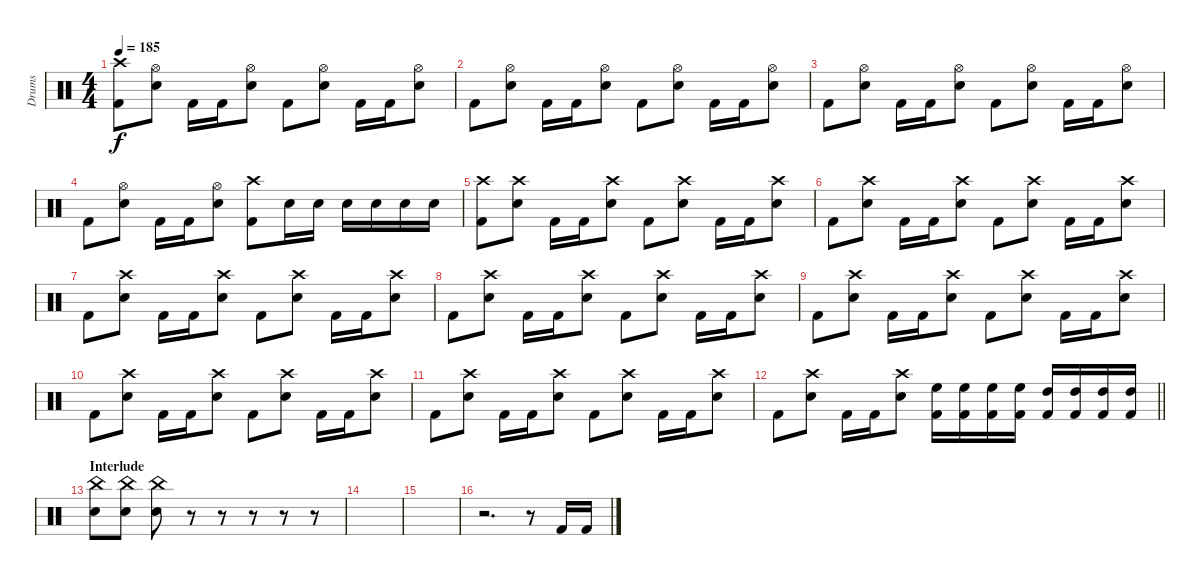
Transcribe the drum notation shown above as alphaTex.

\track ("Drums" "Drums") {instrument percussion}
\staff {score}
\articulation defaults
\ts (4 4)
\tempo 185
\clef neutral
\ks c
("Crash high (hit)" "Kick (hit) 2").8{dy f} ("Hi-Hat (open)" "Electric Snare (hit)").8 "Kick (hit) 2".16 "Kick (hit) 2".16 ("Hi-Hat (open)" "Electric Snare (hit)").8 "Kick (hit) 2".8 ("Hi-Hat (open)" "Electric Snare (hit)").8 "Kick (hit) 2".16 "Kick (hit) 2".16 ("Hi-Hat (open)" "Electric Snare (hit)").8 |
"Kick (hit) 2".8 ("Hi-Hat (open)" "Electric Snare (hit)").8 "Kick (hit) 2".16 "Kick (hit) 2".16 ("Hi-Hat (open)" "Electric Snare (hit)").8 "Kick (hit) 2".8 ("Hi-Hat (open)" "Electric Snare (hit)").8 "Kick (hit) 2".16 "Kick (hit) 2".16 ("Hi-Hat (open)" "Electric Snare (hit)").8 |
"Kick (hit) 2".8 ("Hi-Hat (open)" "Electric Snare (hit)").8 "Kick (hit) 2".16 "Kick (hit) 2".16 ("Hi-Hat (open)" "Electric Snare (hit)").8 "Kick (hit) 2".8 ("Hi-Hat (open)" "Electric Snare (hit)").8 "Kick (hit) 2".16 "Kick (hit) 2".16 ("Hi-Hat (open)" "Electric Snare (hit)").8 |
"Kick (hit) 2".8 ("Hi-Hat (open)" "Electric Snare (hit)").8 "Kick (hit) 2".16 "Kick (hit) 2".16 ("Hi-Hat (open)" "Electric Snare (hit)").8 ("Crash high (hit)" "Kick (hit) 2").8 "Electric Snare (hit)".16 "Electric Snare (hit)".16 "Electric Snare (hit)".16 "Electric Snare (hit)".16 "Electric Snare (hit)".16 "Electric Snare (hit)".16 |
("Crash high (hit)" "Kick (hit) 2").8 ("Crash high (hit)" "Electric Snare (hit)").8 "Kick (hit) 2".16 "Kick (hit) 2".16 ("Crash high (hit)" "Electric Snare (hit)").8 "Kick (hit) 2".8 ("Crash high (hit)" "Electric Snare (hit)").8 "Kick (hit) 2".16 "Kick (hit) 2".16 ("Crash high (hit)" "Electric Snare (hit)").8 |
"Kick (hit) 2".8 ("Crash high (hit)" "Electric Snare (hit)").8 "Kick (hit) 2".16 "Kick (hit) 2".16 ("Crash high (hit)" "Electric Snare (hit)").8 "Kick (hit) 2".8 ("Crash high (hit)" "Electric Snare (hit)").8 "Kick (hit) 2".16 "Kick (hit) 2".16 ("Crash high (hit)" "Electric Snare (hit)").8 |
"Kick (hit) 2".8 ("Crash high (hit)" "Electric Snare (hit)").8 "Kick (hit) 2".16 "Kick (hit) 2".16 ("Crash high (hit)" "Electric Snare (hit)").8 "Kick (hit) 2".8 ("Crash high (hit)" "Electric Snare (hit)").8 "Kick (hit) 2".16 "Kick (hit) 2".16 ("Crash high (hit)" "Electric Snare (hit)").8 |
"Kick (hit) 2".8 ("Crash high (hit)" "Electric Snare (hit)").8 "Kick (hit) 2".16 "Kick (hit) 2".16 ("Crash high (hit)" "Electric Snare (hit)").8 "Kick (hit) 2".8 ("Crash high (hit)" "Electric Snare (hit)").8 "Kick (hit) 2".16 "Kick (hit) 2".16 ("Crash high (hit)" "Electric Snare (hit)").8 |
"Kick (hit) 2".8 ("Crash high (hit)" "Electric Snare (hit)").8 "Kick (hit) 2".16 "Kick (hit) 2".16 ("Crash high (hit)" "Electric Snare (hit)").8 "Kick (hit) 2".8 ("Crash high (hit)" "Electric Snare (hit)").8 "Kick (hit) 2".16 "Kick (hit) 2".16 ("Crash high (hit)" "Electric Snare (hit)").8 |
"Kick (hit) 2".8 ("Crash high (hit)" "Electric Snare (hit)").8 "Kick (hit) 2".16 "Kick (hit) 2".16 ("Crash high (hit)" "Electric Snare (hit)").8 "Kick (hit) 2".8 ("Crash high (hit)" "Electric Snare (hit)").8 "Kick (hit) 2".16 "Kick (hit) 2".16 ("Crash high (hit)" "Electric Snare (hit)").8 |
"Kick (hit) 2".8 ("Crash high (hit)" "Electric Snare (hit)").8 "Kick (hit) 2".16 "Kick (hit) 2".16 ("Crash high (hit)" "Electric Snare (hit)").8 "Kick (hit) 2".8 ("Crash high (hit)" "Electric Snare (hit)").8 "Kick (hit) 2".16 "Kick (hit) 2".16 ("Crash high (hit)" "Electric Snare (hit)").8 |
\barLineRight lightlight "Kick (hit) 2".8
("Crash high (hit)" "Electric Snare (hit)").8 "Kick (hit) 2".16 "Kick (hit) 2".16 ("Crash high (hit)" "Electric Snare (hit)").8 ("High Floor Tom (hit)" "Kick (hit) 2").16 ("High Floor Tom (hit)" "Kick (hit) 2").16 ("High Floor Tom (hit)" "Kick (hit) 2").16 ("High Floor Tom (hit)" "Kick (hit) 2").16 ("High Tom (hit)" "Kick (hit) 2").16 ("High Tom (hit)" "Kick (hit) 2").16 ("High Tom (hit)" "Kick (hit) 2").16 ("High Tom (hit)" "Kick (hit) 2").16 |
\section ("" "Interlude")
("China (hit)" "Electric Snare (hit)").8 ("China (hit)" "Electric Snare (hit)").8 ("China (hit)" "Electric Snare (hit)").8 r.8 r.8 r.8 r.8 r.8 |
|
|
r.2{d} r.8 "Kick (hit) 2".16 "Kick (hit) 2".16
